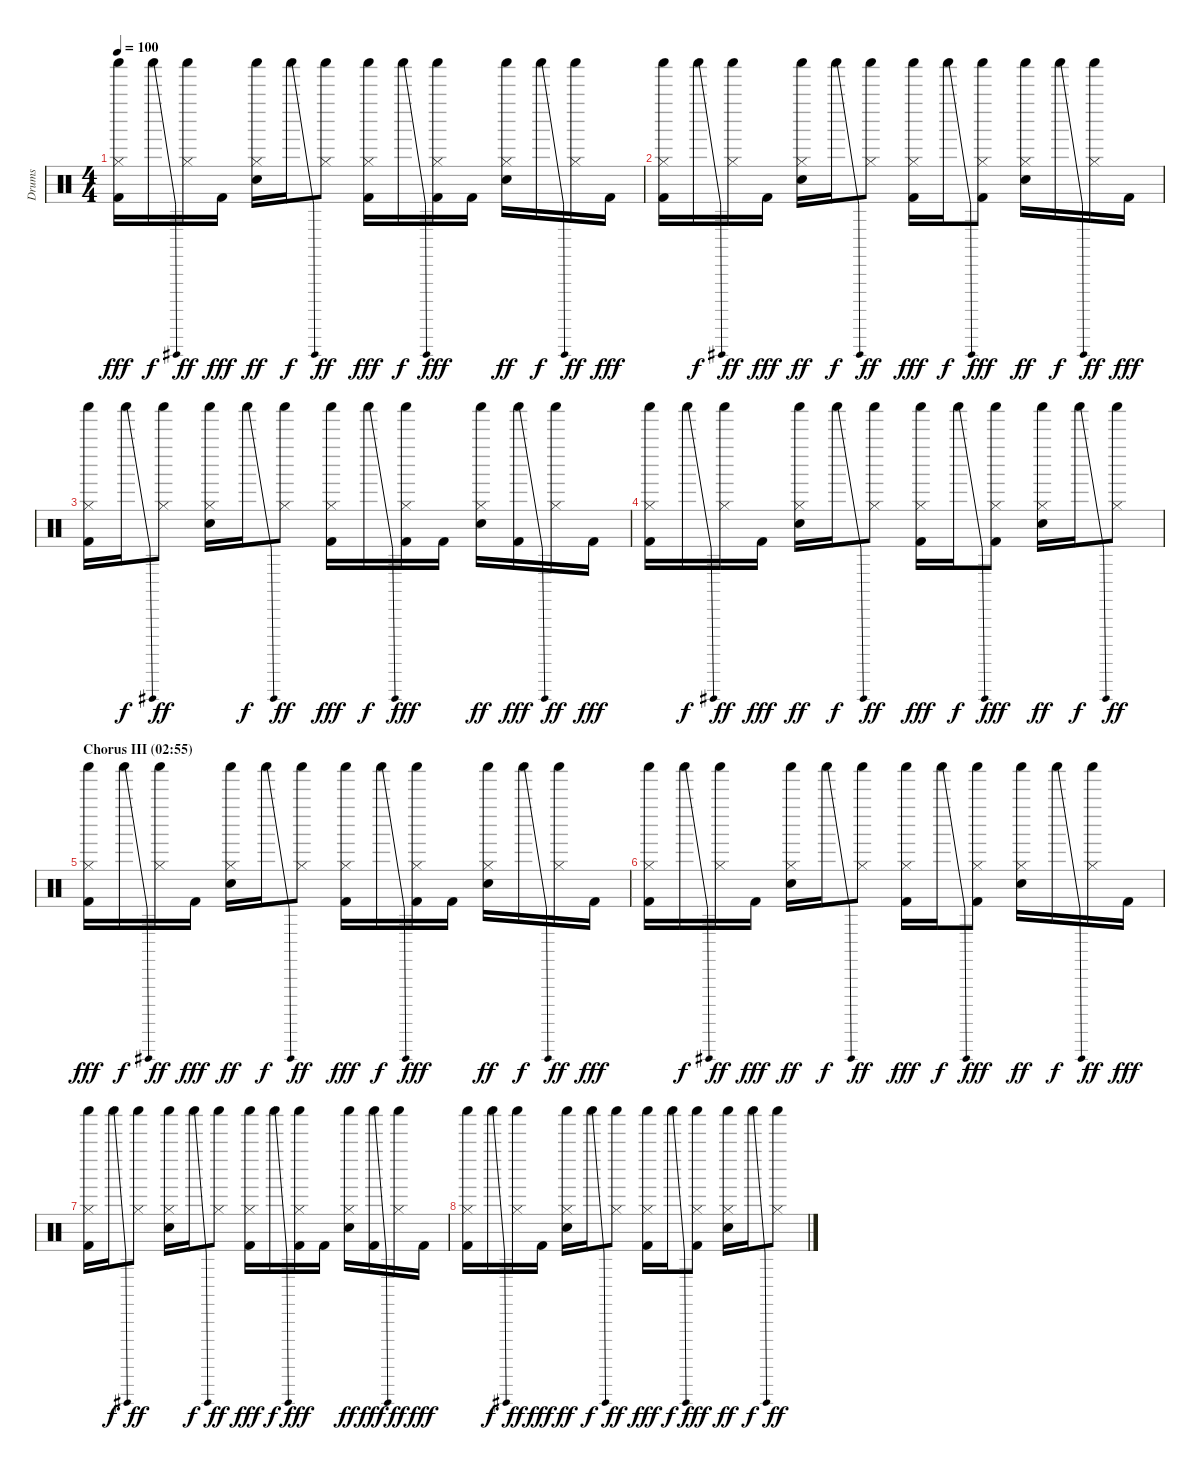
\track ("Drums" "Drums") {instrument percussion}
\staff {score}
\articulation defaults
\ts (4 4)
\tempo 100
\clef neutral
\ks c
("Shaker (hit)" "Hi-Hat (closed)" "Kick (hit) 2").16{dy fff} "Shaker (hit)"{be (bend 0 0 60 12)}.16{dy f} ("Shaker (hit)" "Hi-Hat (closed)").16{dy ff} "Kick (hit) 2".16{dy fff} ("Shaker (hit)" "Hi-Hat (closed)" "Electric Snare (hit)").16{dy ff} "Shaker (hit)"{be (bend 0 0 60 12)}.16{dy f} ("Shaker (hit)" "Hi-Hat (closed)").8{dy ff} ("Shaker (hit)" "Hi-Hat (closed)" "Kick (hit) 2").16{dy fff} "Shaker (hit)"{be (bend 0 0 60 12)}.16{dy f} ("Shaker (hit)" "Hi-Hat (closed)" "Kick (hit) 2").16{dy fff} "Kick (hit) 2".16 ("Shaker (hit)" "Hi-Hat (closed)" "Electric Snare (hit)").16{dy ff} "Shaker (hit)"{be (bend 0 0 60 12)}.16{dy f} ("Shaker (hit)" "Hi-Hat (closed)").16{dy ff} "Kick (hit) 2".16{dy fff} |
("Shaker (hit)" "Hi-Hat (closed)" "Kick (hit) 2").16 "Shaker (hit)"{be (bend 0 0 60 12)}.16{dy f} ("Shaker (hit)" "Hi-Hat (closed)").16{dy ff} "Kick (hit) 2".16{dy fff} ("Shaker (hit)" "Hi-Hat (closed)" "Electric Snare (hit)").16{dy ff} "Shaker (hit)"{be (bend 0 0 60 12)}.16{dy f} ("Shaker (hit)" "Hi-Hat (closed)").8{dy ff} ("Shaker (hit)" "Hi-Hat (closed)" "Kick (hit) 2").16{dy fff} "Shaker (hit)"{be (bend 0 0 60 12)}.16{dy f} ("Shaker (hit)" "Hi-Hat (closed)" "Kick (hit) 2").8{dy fff} ("Shaker (hit)" "Hi-Hat (closed)" "Electric Snare (hit)").16{dy ff} "Shaker (hit)"{be (bend 0 0 60 12)}.16{dy f} ("Shaker (hit)" "Hi-Hat (closed)").16{dy ff} "Kick (hit) 2".16{dy fff} |
("Shaker (hit)" "Hi-Hat (closed)" "Kick (hit) 2").16 "Shaker (hit)"{be (bend 0 0 60 12)}.16{dy f} ("Shaker (hit)" "Hi-Hat (closed)").8{dy ff} ("Shaker (hit)" "Hi-Hat (closed)" "Electric Snare (hit)").16 "Shaker (hit)"{be (bend 0 0 60 12)}.16{dy f} ("Shaker (hit)" "Hi-Hat (closed)").8{dy ff} ("Shaker (hit)" "Hi-Hat (closed)" "Kick (hit) 2").16{dy fff} "Shaker (hit)"{be (bend 0 0 60 12)}.16{dy f} ("Shaker (hit)" "Hi-Hat (closed)" "Kick (hit) 2").16{dy fff} "Kick (hit) 2".16 ("Shaker (hit)" "Hi-Hat (closed)" "Electric Snare (hit)").16{dy ff} ("Shaker (hit)"{be (bend 0 0 60 12)} "Kick (hit) 2").16{dy fff} ("Shaker (hit)" "Hi-Hat (closed)").16{dy ff} "Kick (hit) 2".16{dy fff} |
("Shaker (hit)" "Hi-Hat (closed)" "Kick (hit) 2").16 "Shaker (hit)"{be (bend 0 0 60 12)}.16{dy f} ("Shaker (hit)" "Hi-Hat (closed)").16{dy ff} "Kick (hit) 2".16{dy fff} ("Shaker (hit)" "Hi-Hat (closed)" "Electric Snare (hit)").16{dy ff} "Shaker (hit)"{be (bend 0 0 60 12)}.16{dy f} ("Shaker (hit)" "Hi-Hat (closed)").8{dy ff} ("Shaker (hit)" "Hi-Hat (closed)" "Kick (hit) 2").16{dy fff} "Shaker (hit)"{be (bend 0 0 60 12)}.16{dy f} ("Shaker (hit)" "Hi-Hat (closed)" "Kick (hit) 2").8{dy fff} ("Shaker (hit)" "Hi-Hat (closed)" "Electric Snare (hit)").16{dy ff} "Shaker (hit)"{be (bend 0 0 60 12)}.16{dy f} ("Shaker (hit)" "Hi-Hat (closed)").8{dy ff} |
\section ("" "Chorus III (02:55)")
("Shaker (hit)" "Hi-Hat (closed)" "Kick (hit) 2").16{dy fff} "Shaker (hit)"{be (bend 0 0 60 12)}.16{dy f} ("Shaker (hit)" "Hi-Hat (closed)").16{dy ff} "Kick (hit) 2".16{dy fff} ("Shaker (hit)" "Hi-Hat (closed)" "Electric Snare (hit)").16{dy ff} "Shaker (hit)"{be (bend 0 0 60 12)}.16{dy f} ("Shaker (hit)" "Hi-Hat (closed)").8{dy ff} ("Shaker (hit)" "Hi-Hat (closed)" "Kick (hit) 2").16{dy fff} "Shaker (hit)"{be (bend 0 0 60 12)}.16{dy f} ("Shaker (hit)" "Hi-Hat (closed)" "Kick (hit) 2").16{dy fff} "Kick (hit) 2".16 ("Shaker (hit)" "Hi-Hat (closed)" "Electric Snare (hit)").16{dy ff} "Shaker (hit)"{be (bend 0 0 60 12)}.16{dy f} ("Shaker (hit)" "Hi-Hat (closed)").16{dy ff} "Kick (hit) 2".16{dy fff} |
("Shaker (hit)" "Hi-Hat (closed)" "Kick (hit) 2").16 "Shaker (hit)"{be (bend 0 0 60 12)}.16{dy f} ("Shaker (hit)" "Hi-Hat (closed)").16{dy ff} "Kick (hit) 2".16{dy fff} ("Shaker (hit)" "Hi-Hat (closed)" "Electric Snare (hit)").16{dy ff} "Shaker (hit)"{be (bend 0 0 60 12)}.16{dy f} ("Shaker (hit)" "Hi-Hat (closed)").8{dy ff} ("Shaker (hit)" "Hi-Hat (closed)" "Kick (hit) 2").16{dy fff} "Shaker (hit)"{be (bend 0 0 60 12)}.16{dy f} ("Shaker (hit)" "Hi-Hat (closed)" "Kick (hit) 2").8{dy fff} ("Shaker (hit)" "Hi-Hat (closed)" "Electric Snare (hit)").16{dy ff} "Shaker (hit)"{be (bend 0 0 60 12)}.16{dy f} ("Shaker (hit)" "Hi-Hat (closed)").16{dy ff} "Kick (hit) 2".16{dy fff} |
("Shaker (hit)" "Hi-Hat (closed)" "Kick (hit) 2").16 "Shaker (hit)"{be (bend 0 0 60 12)}.16{dy f} ("Shaker (hit)" "Hi-Hat (closed)").8{dy ff} ("Shaker (hit)" "Hi-Hat (closed)" "Electric Snare (hit)").16 "Shaker (hit)"{be (bend 0 0 60 12)}.16{dy f} ("Shaker (hit)" "Hi-Hat (closed)").8{dy ff} ("Shaker (hit)" "Hi-Hat (closed)" "Kick (hit) 2").16{dy fff} "Shaker (hit)"{be (bend 0 0 60 12)}.16{dy f} ("Shaker (hit)" "Hi-Hat (closed)" "Kick (hit) 2").16{dy fff} "Kick (hit) 2".16 ("Shaker (hit)" "Hi-Hat (closed)" "Electric Snare (hit)").16{dy ff} ("Shaker (hit)"{be (bend 0 0 60 12)} "Kick (hit) 2").16{dy fff} ("Shaker (hit)" "Hi-Hat (closed)").16{dy ff} "Kick (hit) 2".16{dy fff} |
("Shaker (hit)" "Hi-Hat (closed)" "Kick (hit) 2").16 "Shaker (hit)"{be (bend 0 0 60 12)}.16{dy f} ("Shaker (hit)" "Hi-Hat (closed)").16{dy ff} "Kick (hit) 2".16{dy fff} ("Shaker (hit)" "Hi-Hat (closed)" "Electric Snare (hit)").16{dy ff} "Shaker (hit)"{be (bend 0 0 60 12)}.16{dy f} ("Shaker (hit)" "Hi-Hat (closed)").8{dy ff} ("Shaker (hit)" "Hi-Hat (closed)" "Kick (hit) 2").16{dy fff} "Shaker (hit)"{be (bend 0 0 60 12)}.16{dy f} ("Shaker (hit)" "Hi-Hat (closed)" "Kick (hit) 2").8{dy fff} ("Shaker (hit)" "Hi-Hat (closed)" "Electric Snare (hit)").16{dy ff} "Shaker (hit)"{be (bend 0 0 60 12)}.16{dy f} ("Shaker (hit)" "Hi-Hat (closed)").8{dy ff}
